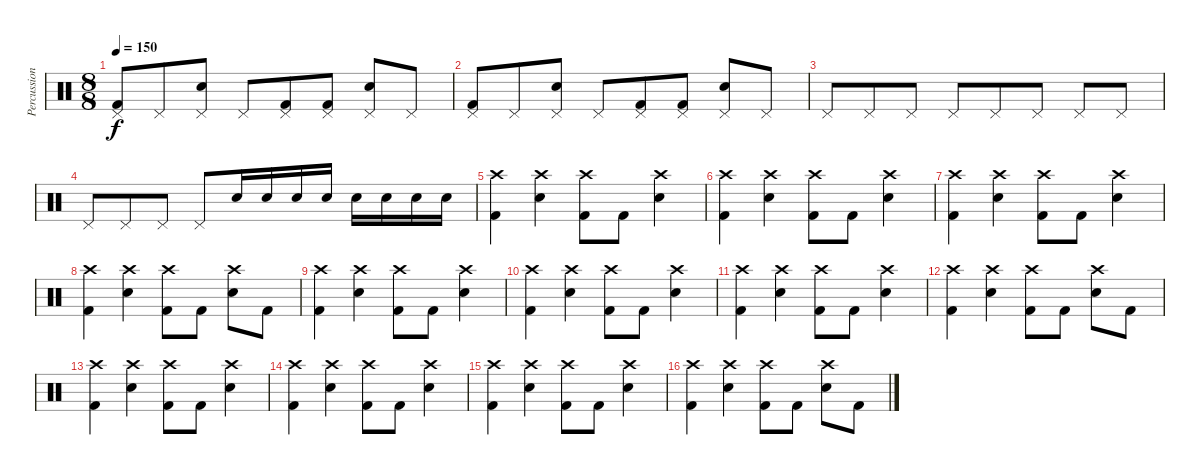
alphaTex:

\track ("Percussion" "Percussion") {instrument percussion}
\staff {score}
\articulation defaults
\ts (8 8)
\tempo 150
\clef neutral
\ks c
("Pedal Hi-Hat (hit)" "Kick (hit) 2").8{dy f} "Pedal Hi-Hat (hit)".8 ("Pedal Hi-Hat (hit)" "Snare (hit) 2").8 "Pedal Hi-Hat (hit)".8 ("Pedal Hi-Hat (hit)" "Kick (hit) 2").8 ("Pedal Hi-Hat (hit)" "Kick (hit) 2").8 ("Pedal Hi-Hat (hit)" "Snare (hit) 2").8 "Pedal Hi-Hat (hit)".8 |
("Pedal Hi-Hat (hit)" "Kick (hit) 2").8 "Pedal Hi-Hat (hit)".8 ("Pedal Hi-Hat (hit)" "Snare (hit) 2").8 "Pedal Hi-Hat (hit)".8 ("Pedal Hi-Hat (hit)" "Kick (hit) 2").8 ("Pedal Hi-Hat (hit)" "Kick (hit) 2").8 ("Pedal Hi-Hat (hit)" "Snare (hit) 2").8 "Pedal Hi-Hat (hit)".8 |
"Pedal Hi-Hat (hit)".8 "Pedal Hi-Hat (hit)".8 "Pedal Hi-Hat (hit)".8 "Pedal Hi-Hat (hit)".8 "Pedal Hi-Hat (hit)".8 "Pedal Hi-Hat (hit)".8 "Pedal Hi-Hat (hit)".8 "Pedal Hi-Hat (hit)".8 |
"Pedal Hi-Hat (hit)".8 "Pedal Hi-Hat (hit)".8 "Pedal Hi-Hat (hit)".8 "Pedal Hi-Hat (hit)".8 "Snare (hit) 2".16 "Snare (hit) 2".16 "Snare (hit) 2".16 "Snare (hit) 2".16 "Snare (hit) 2".16 "Snare (hit) 2".16 "Snare (hit) 2".16 "Snare (hit) 2".16 |
("Crash high (hit)" "Kick (hit) 2").4 ("Crash high (hit)" "Snare (hit) 2").4 ("Crash high (hit)" "Kick (hit) 2").8 "Kick (hit) 2".8 ("Crash high (hit)" "Snare (hit) 2").4 |
("Crash high (hit)" "Kick (hit) 2").4 ("Crash high (hit)" "Snare (hit) 2").4 ("Crash high (hit)" "Kick (hit) 2").8 "Kick (hit) 2".8 ("Crash high (hit)" "Snare (hit) 2").4 |
("Crash high (hit)" "Kick (hit) 2").4 ("Crash high (hit)" "Snare (hit) 2").4 ("Crash high (hit)" "Kick (hit) 2").8 "Kick (hit) 2".8 ("Crash high (hit)" "Snare (hit) 2").4 |
("Crash high (hit)" "Kick (hit) 2").4 ("Crash high (hit)" "Snare (hit) 2").4 ("Crash high (hit)" "Kick (hit) 2").8 "Kick (hit) 2".8 ("Crash high (hit)" "Snare (hit) 2").8 "Kick (hit) 2".8 |
("Crash high (hit)" "Kick (hit) 2").4 ("Crash high (hit)" "Snare (hit) 2").4 ("Crash high (hit)" "Kick (hit) 2").8 "Kick (hit) 2".8 ("Crash high (hit)" "Snare (hit) 2").4 |
("Crash high (hit)" "Kick (hit) 2").4 ("Crash high (hit)" "Snare (hit) 2").4 ("Crash high (hit)" "Kick (hit) 2").8 "Kick (hit) 2".8 ("Crash high (hit)" "Snare (hit) 2").4 |
("Crash high (hit)" "Kick (hit) 2").4 ("Crash high (hit)" "Snare (hit) 2").4 ("Crash high (hit)" "Kick (hit) 2").8 "Kick (hit) 2".8 ("Crash high (hit)" "Snare (hit) 2").4 |
("Crash high (hit)" "Kick (hit) 2").4 ("Crash high (hit)" "Snare (hit) 2").4 ("Crash high (hit)" "Kick (hit) 2").8 "Kick (hit) 2".8 ("Crash high (hit)" "Snare (hit) 2").8 "Kick (hit) 2".8 |
("Crash high (hit)" "Kick (hit) 2").4 ("Crash high (hit)" "Snare (hit) 2").4 ("Crash high (hit)" "Kick (hit) 2").8 "Kick (hit) 2".8 ("Crash high (hit)" "Snare (hit) 2").4 |
("Crash high (hit)" "Kick (hit) 2").4 ("Crash high (hit)" "Snare (hit) 2").4 ("Crash high (hit)" "Kick (hit) 2").8 "Kick (hit) 2".8 ("Crash high (hit)" "Snare (hit) 2").4 |
("Crash high (hit)" "Kick (hit) 2").4 ("Crash high (hit)" "Snare (hit) 2").4 ("Crash high (hit)" "Kick (hit) 2").8 "Kick (hit) 2".8 ("Crash high (hit)" "Snare (hit) 2").4 |
("Crash high (hit)" "Kick (hit) 2").4 ("Crash high (hit)" "Snare (hit) 2").4 ("Crash high (hit)" "Kick (hit) 2").8 "Kick (hit) 2".8 ("Crash high (hit)" "Snare (hit) 2").8 "Kick (hit) 2".8
